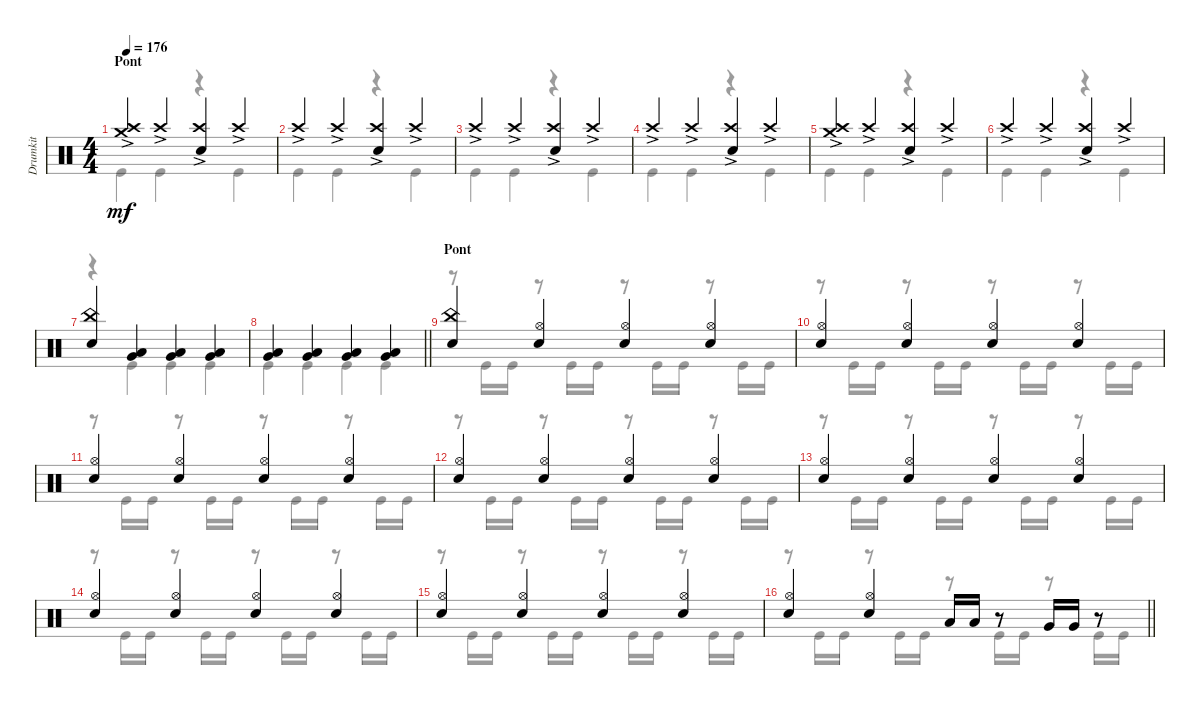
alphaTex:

\track ("Drumkit" "Drumkit") {instrument percussion}
\staff {score}
\articulation defaults
\voice
\ts (4 4)
\section ("" "Pont")
\tempo 176
\clef neutral
\ks c
("Crash medium (hit)"{ac} "Crash high (hit)"{ac}).4{dy mf} "Crash high (hit)"{ac}.4 ("Crash high (hit)"{ac} "Snare (hit) 2").4 "Crash high (hit)"{ac}.4 |
"Crash high (hit)"{ac}.4 "Crash high (hit)"{ac}.4 ("Crash high (hit)"{ac} "Snare (hit) 2").4 "Crash high (hit)"{ac}.4 |
"Crash high (hit)"{ac}.4 "Crash high (hit)"{ac}.4 ("Crash high (hit)"{ac} "Snare (hit) 2").4 "Crash high (hit)"{ac}.4 |
"Crash high (hit)"{ac}.4 "Crash high (hit)"{ac}.4 ("Crash high (hit)"{ac} "Snare (hit) 2").4 "Crash high (hit)"{ac}.4 |
("Crash medium (hit)"{ac} "Crash high (hit)"{ac}).4 "Crash high (hit)"{ac}.4 ("Crash high (hit)"{ac} "Snare (hit) 2").4 "Crash high (hit)"{ac}.4 |
"Crash high (hit)"{ac}.4 "Crash high (hit)"{ac}.4 ("Crash high (hit)"{ac} "Snare (hit) 2").4 "Crash high (hit)"{ac}.4 |
("China (hit)" "Snare (hit) 2").4 ("Low Tom (hit)" "Very Low Tom (hit)").4 ("Low Tom (hit)" "Very Low Tom (hit)").4 ("Low Tom (hit)" "Very Low Tom (hit)").4 |
\barLineRight lightlight
("Very Low Tom (hit)" "Low Tom (hit)").4 ("Very Low Tom (hit)" "Low Tom (hit)").4 ("Very Low Tom (hit)" "Low Tom (hit)").4 ("Very Low Tom (hit)" "Low Tom (hit)").4 |
\section ("" "Pont")
("China (hit)" "Snare (hit) 2").4 ("Snare (hit) 2" "Hi-Hat (open)").4 ("Snare (hit) 2" "Hi-Hat (open)").4 ("Snare (hit) 2" "Hi-Hat (open)").4 |
("Snare (hit) 2" "Hi-Hat (open)").4 ("Snare (hit) 2" "Hi-Hat (open)").4 ("Snare (hit) 2" "Hi-Hat (open)").4 ("Snare (hit) 2" "Hi-Hat (open)").4 |
("Snare (hit) 2" "Hi-Hat (open)").4 ("Snare (hit) 2" "Hi-Hat (open)").4 ("Snare (hit) 2" "Hi-Hat (open)").4 ("Snare (hit) 2" "Hi-Hat (open)").4 |
("Snare (hit) 2" "Hi-Hat (open)").4 ("Snare (hit) 2" "Hi-Hat (open)").4 ("Snare (hit) 2" "Hi-Hat (open)").4 ("Snare (hit) 2" "Hi-Hat (open)").4 |
("Snare (hit) 2" "Hi-Hat (open)").4 ("Snare (hit) 2" "Hi-Hat (open)").4 ("Snare (hit) 2" "Hi-Hat (open)").4 ("Snare (hit) 2" "Hi-Hat (open)").4 |
("Snare (hit) 2" "Hi-Hat (open)").4 ("Snare (hit) 2" "Hi-Hat (open)").4 ("Snare (hit) 2" "Hi-Hat (open)").4 ("Snare (hit) 2" "Hi-Hat (open)").4 |
("Snare (hit) 2" "Hi-Hat (open)").4 ("Snare (hit) 2" "Hi-Hat (open)").4 ("Snare (hit) 2" "Hi-Hat (open)").4 ("Snare (hit) 2" "Hi-Hat (open)").4 |
\barLineRight lightlight
("Snare (hit) 2" "Hi-Hat (open)").4 ("Snare (hit) 2" "Hi-Hat (open)").4 "Low Tom (hit)".16 "Low Tom (hit)".16 r.8 "Very Low Tom (hit)".16 "Very Low Tom (hit)".16 r.8
\voice
\clef neutral
\ottava regular
\simile none
\ks c "Kick (hit)".4{dy mf} "Kick (hit)".4
r.4 "Kick (hit)".4 |
"Kick (hit)".4 "Kick (hit)".4 r.4 "Kick (hit)".4 |
"Kick (hit)".4 "Kick (hit)".4 r.4 "Kick (hit)".4 |
"Kick (hit)".4 "Kick (hit)".4 r.4 "Kick (hit)".4 |
"Kick (hit)".4 "Kick (hit)".4 r.4 "Kick (hit)".4 |
"Kick (hit)".4 "Kick (hit)".4 r.4 "Kick (hit)".4 |
r.4 "Kick (hit)".4 "Kick (hit)".4 "Kick (hit)".4 |
\barLineRight lightlight "Kick (hit)".4 "Kick (hit)".4 "Kick (hit)".4 "Kick (hit)".4
|
r.8 "Kick (hit)".16 "Kick (hit)".16 r.8 "Kick (hit)".16 "Kick (hit)".16 r.8 "Kick (hit)".16 "Kick (hit)".16 r.8 "Kick (hit)".16 "Kick (hit)".16 |
r.8 "Kick (hit)".16 "Kick (hit)".16 r.8 "Kick (hit)".16 "Kick (hit)".16 r.8 "Kick (hit)".16 "Kick (hit)".16 r.8 "Kick (hit)".16 "Kick (hit)".16 |
r.8 "Kick (hit)".16 "Kick (hit)".16 r.8 "Kick (hit)".16 "Kick (hit)".16 r.8 "Kick (hit)".16 "Kick (hit)".16 r.8 "Kick (hit)".16 "Kick (hit)".16 |
r.8 "Kick (hit)".16 "Kick (hit)".16 r.8 "Kick (hit)".16 "Kick (hit)".16 r.8 "Kick (hit)".16 "Kick (hit)".16 r.8 "Kick (hit)".16 "Kick (hit)".16 |
r.8 "Kick (hit)".16 "Kick (hit)".16 r.8 "Kick (hit)".16 "Kick (hit)".16 r.8 "Kick (hit)".16 "Kick (hit)".16 r.8 "Kick (hit)".16 "Kick (hit)".16 |
r.8 "Kick (hit)".16 "Kick (hit)".16 r.8 "Kick (hit)".16 "Kick (hit)".16 r.8 "Kick (hit)".16 "Kick (hit)".16 r.8 "Kick (hit)".16 "Kick (hit)".16 |
r.8 "Kick (hit)".16 "Kick (hit)".16 r.8 "Kick (hit)".16 "Kick (hit)".16 r.8 "Kick (hit)".16 "Kick (hit)".16 r.8 "Kick (hit)".16 "Kick (hit)".16 |
\barLineRight lightlight
r.8 "Kick (hit)".16 "Kick (hit)".16 r.8 "Kick (hit)".16 "Kick (hit)".16 r.8 "Kick (hit)".16 "Kick (hit)".16 r.8 "Kick (hit)".16 "Kick (hit)".16
